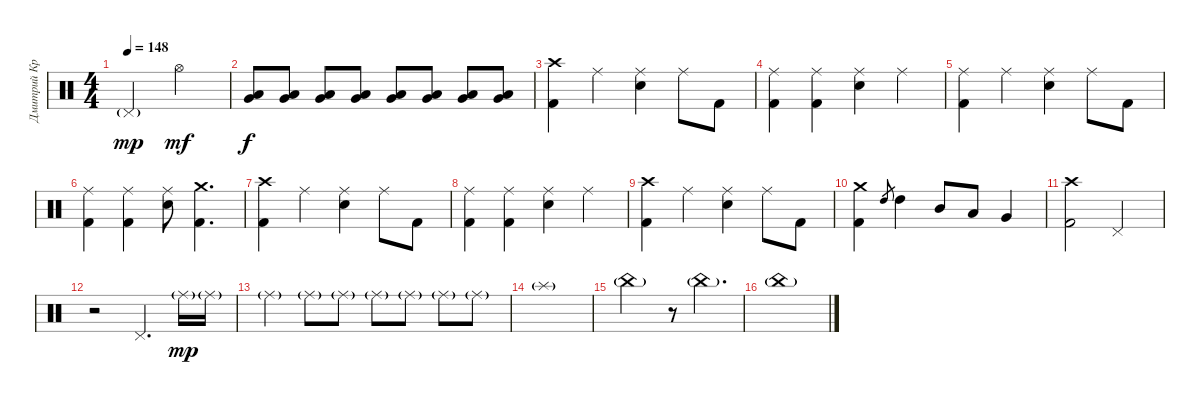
\track ("Дмитрий Кривенков" "Дмитрий Кр") {instrument percussion}
\staff {score}
\articulation defaults
\ts (4 4)
\tempo 148
\clef neutral
\ks c "Pedal Hi-Hat (hit)"{g}.2{dy mp} "Hi-Hat (open)".2{dy mf}
|
("Very Low Tom (hit)" "Low Floor Tom (hit)").8{dy f} ("Very Low Tom (hit)" "Low Floor Tom (hit)").8 ("Very Low Tom (hit)" "Low Floor Tom (hit)").8 ("Very Low Tom (hit)" "Low Floor Tom (hit)").8 ("Very Low Tom (hit)" "Low Floor Tom (hit)").8 ("Very Low Tom (hit)" "Low Floor Tom (hit)").8 ("Very Low Tom (hit)" "Low Floor Tom (hit)").8 ("Very Low Tom (hit)" "Low Floor Tom (hit)").8 |
("Crash high (hit)" "Kick (hit) 2").4 "Ride (middle)".4 ("Ride (middle)" "Electric Snare (hit)").4 "Ride (middle)".8 "Kick (hit) 2".8 |
("Ride (middle)" "Kick (hit) 2").4 ("Ride (middle)" "Kick (hit) 2").4 ("Ride (middle)" "Electric Snare (hit)").4 "Ride (middle)".4 |
("Ride (middle)" "Kick (hit) 2").4 "Ride (middle)".4 ("Ride (middle)" "Electric Snare (hit)").4 "Ride (middle)".8 "Kick (hit) 2".8 |
("Ride (middle)" "Kick (hit) 2").4 ("Ride (middle)" "Kick (hit) 2").4 ("Ride (middle)" "Electric Snare (hit)").8 ("Crash medium (hit)" "Kick (hit) 2").4{d} |
("Crash high (hit)" "Kick (hit) 2").4 "Ride (middle)".4 ("Ride (middle)" "Electric Snare (hit)").4 "Ride (middle)".8 "Kick (hit) 2".8 |
("Ride (middle)" "Kick (hit) 2").4 ("Ride (middle)" "Kick (hit) 2").4 ("Ride (middle)" "Electric Snare (hit)").4 "Ride (middle)".4 |
("Crash high (hit)" "Kick (hit) 2").4 "Ride (middle)".4 ("Ride (middle)" "Electric Snare (hit)").4 "Ride (middle)".8 "Kick (hit) 2".8 |
("Crash medium (hit)" "Kick (hit) 2").4 "High Tom (hit)".8{gr} "High Tom (hit)".4 "Mid Tom (hit)".8 "Low Tom (hit)".8 "Very Low Tom (hit)".4 |
("Crash high (hit)" "Kick (hit) 2").2 "Pedal Hi-Hat (hit)".2 |
r.2 "Pedal Hi-Hat (hit)".4{d} "Ride (middle)"{g}.16{dy mp} "Ride (middle)"{g}.16 |
"Ride (middle)"{g}.4 "Ride (middle)"{g}.8 "Ride (middle)"{g}.8 "Ride (middle)"{g}.8 "Ride (middle)"{g}.8 "Ride (middle)"{g}.8 "Ride (middle)"{g}.8 |
"Splash (hit)"{g}.1 |
"China (hit)"{g}.2 r.8 "China (hit)"{g}.4{d} |
"China (hit)"{g}.1
